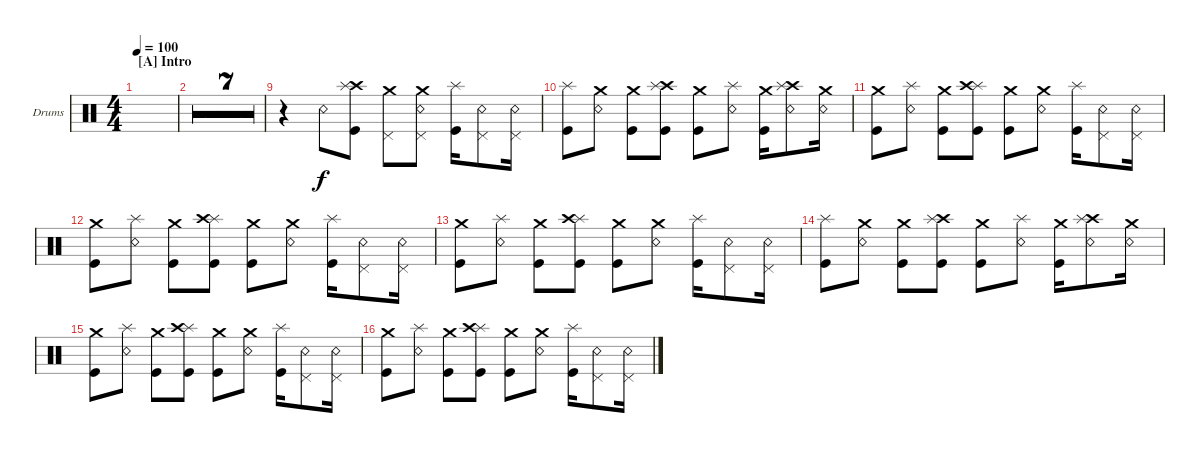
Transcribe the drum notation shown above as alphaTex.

\defaultSystemsLayout 4
\bracketExtendMode groupsimilarinstruments
\firstSystemTrackNameOrientation horizontal
\otherSystemsTrackNameOrientation horizontal
\track ("Bateria" "Drums") {multiBarRest instrument percussion}
\staff {score}
\articulation defaults
\ts (4 4)
\section ("A" "Intro")
\tempo 100
\clef neutral
\ks c
|
|
|
|
|
|
|
|
r.4 "Snare (rim shot)".8 ("Kick (hit)" "Crash high (hit)" "Splash (hit)").8 ("Pedal Hi-Hat (hit)" "Crash medium (hit)").8 ("Pedal Hi-Hat (hit)" "Snare (rim shot)" "Crash medium (hit)").8 ("Kick (hit)" "Splash (hit)").16 ("Snare (rim shot)" "Pedal Hi-Hat (hit)").8 ("Snare (rim shot)" "Pedal Hi-Hat (hit)").16 |
("Kick (hit)" "Splash (hit)").8 ("Snare (rim shot)" "Crash medium (hit)").8 ("Kick (hit)" "Crash medium (hit)").8 ("Kick (hit)" "Crash high (hit)" "Splash (hit)").8 ("Kick (hit)" "Crash medium (hit)").8 ("Snare (rim shot)" "Splash (hit)").8 ("Kick (hit)" "Crash medium (hit)").16 ("Snare (rim shot)" "Crash high (hit)" "Splash (hit)").8 ("Snare (rim shot)" "Crash medium (hit)").16 |
("Kick (hit)" "Crash medium (hit)").8 ("Snare (rim shot)" "Splash (hit)").8 ("Kick (hit)" "Crash medium (hit)").8 ("Splash (hit)" "Kick (hit)" "Crash high (hit)").8 ("Kick (hit)" "Crash medium (hit)").8 ("Snare (rim shot)" "Crash medium (hit)").8 ("Kick (hit)" "Splash (hit)").16 ("Snare (rim shot)" "Pedal Hi-Hat (hit)").8 ("Snare (rim shot)" "Pedal Hi-Hat (hit)").16 |
("Kick (hit)" "Crash medium (hit)").8 ("Snare (rim shot)" "Splash (hit)").8 ("Kick (hit)" "Crash medium (hit)").8 ("Splash (hit)" "Kick (hit)" "Crash high (hit)").8 ("Kick (hit)" "Crash medium (hit)").8 ("Snare (rim shot)" "Crash medium (hit)").8 ("Kick (hit)" "Splash (hit)").16 ("Snare (rim shot)" "Pedal Hi-Hat (hit)").8 ("Snare (rim shot)" "Pedal Hi-Hat (hit)").16 |
("Kick (hit)" "Crash medium (hit)").8 ("Snare (rim shot)" "Splash (hit)").8 ("Kick (hit)" "Crash medium (hit)").8 ("Splash (hit)" "Kick (hit)" "Crash high (hit)").8 ("Kick (hit)" "Crash medium (hit)").8 ("Snare (rim shot)" "Crash medium (hit)").8 ("Kick (hit)" "Splash (hit)").16 ("Snare (rim shot)" "Pedal Hi-Hat (hit)").8 ("Snare (rim shot)" "Pedal Hi-Hat (hit)").16 |
("Kick (hit)" "Splash (hit)").8 ("Snare (rim shot)" "Crash medium (hit)").8 ("Kick (hit)" "Crash medium (hit)").8 ("Kick (hit)" "Crash high (hit)" "Splash (hit)").8 ("Kick (hit)" "Crash medium (hit)").8 ("Snare (rim shot)" "Splash (hit)").8 ("Kick (hit)" "Crash medium (hit)").16 ("Snare (rim shot)" "Crash high (hit)" "Splash (hit)").8 ("Snare (rim shot)" "Crash medium (hit)").16 |
("Kick (hit)" "Crash medium (hit)").8 ("Snare (rim shot)" "Splash (hit)").8 ("Kick (hit)" "Crash medium (hit)").8 ("Splash (hit)" "Kick (hit)" "Crash high (hit)").8 ("Kick (hit)" "Crash medium (hit)").8 ("Snare (rim shot)" "Crash medium (hit)").8 ("Kick (hit)" "Splash (hit)").16 ("Snare (rim shot)" "Pedal Hi-Hat (hit)").8 ("Snare (rim shot)" "Pedal Hi-Hat (hit)").16 |
("Kick (hit)" "Crash medium (hit)").8 ("Snare (rim shot)" "Splash (hit)").8 ("Kick (hit)" "Crash medium (hit)").8 ("Splash (hit)" "Kick (hit)" "Crash high (hit)").8 ("Kick (hit)" "Crash medium (hit)").8 ("Snare (rim shot)" "Crash medium (hit)").8 ("Kick (hit)" "Splash (hit)").16 ("Snare (rim shot)" "Pedal Hi-Hat (hit)").8 ("Snare (rim shot)" "Pedal Hi-Hat (hit)").16
